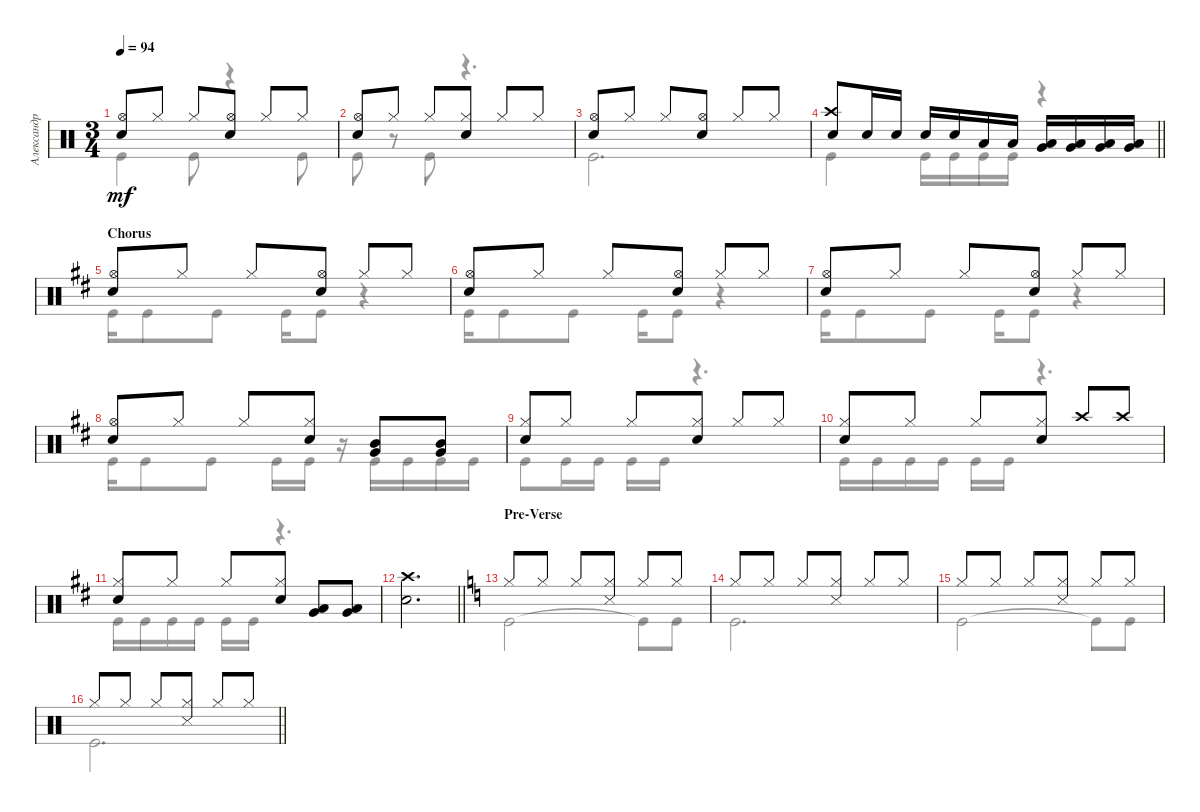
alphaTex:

\track ("Александр Манякин" "Александр ") {instrument percussion}
\staff {score}
\articulation defaults
\voice
\ts (3 4)
\tempo 94
\clef neutral
\ks c
("Snare (hit) 2" "Hi-Hat (open)").8{dy mf} "Hi-Hat (closed)".8 "Hi-Hat (closed)".8 ("Snare (hit) 2" "Hi-Hat (open)").8 "Hi-Hat (closed)".8 "Hi-Hat (closed)".8 |
("Hi-Hat (open)" "Snare (hit) 2").8 "Hi-Hat (closed)".8 "Hi-Hat (closed)".8 ("Hi-Hat (closed)" "Snare (hit) 2").8 "Hi-Hat (closed)".8 "Hi-Hat (closed)".8 |
("Snare (hit) 2" "Hi-Hat (open)").8 "Hi-Hat (closed)".8 "Hi-Hat (closed)".8 ("Snare (hit) 2" "Hi-Hat (open)").8 "Hi-Hat (closed)".8 "Hi-Hat (closed)".8 |
\barLineRight lightlight
("Snare (hit) 2" "Crash high (hit)").8 "Snare (hit) 2".16 "Snare (hit) 2".16 "Snare (hit) 2".16 "Snare (hit) 2".16 "Low Tom (hit)".16 "Low Tom (hit)".16 ("Low Tom (hit)" "Very Low Tom (hit)").16 ("Low Tom (hit)" "Very Low Tom (hit)").16 ("Low Tom (hit)" "Very Low Tom (hit)").16 ("Low Tom (hit)" "Very Low Tom (hit)").16 |
\section ("" "Chorus")
\ks d
("Snare (hit) 2" "Hi-Hat (open)").8 "Hi-Hat (closed)".8 "Hi-Hat (closed)".8 ("Snare (hit) 2" "Hi-Hat (open)").8 "Hi-Hat (closed)".8 "Hi-Hat (closed)".8 |
("Snare (hit) 2" "Hi-Hat (open)").8 "Hi-Hat (closed)".8 "Hi-Hat (closed)".8 ("Snare (hit) 2" "Hi-Hat (open)").8 "Hi-Hat (closed)".8 "Hi-Hat (closed)".8 |
("Snare (hit) 2" "Hi-Hat (open)").8 "Hi-Hat (closed)".8 "Hi-Hat (closed)".8 ("Snare (hit) 2" "Hi-Hat (open)").8 "Hi-Hat (closed)".8 "Hi-Hat (closed)".8 |
("Snare (hit) 2" "Hi-Hat (open)").8 "Hi-Hat (closed)".8 "Hi-Hat (closed)".8 ("Hi-Hat (closed)" "Snare (hit) 2").8 ("Mid Tom (hit)" "Very Low Tom (hit)").8 ("Mid Tom (hit)" "Very Low Tom (hit)").8 |
("Snare (hit) 2" "Hi-Hat (closed)").8 "Hi-Hat (closed)".8 "Hi-Hat (closed)".8 ("Snare (hit) 2" "Hi-Hat (closed)").8 "Hi-Hat (closed)".8 "Hi-Hat (closed)".8 |
("Snare (hit) 2" "Hi-Hat (closed)").8 "Hi-Hat (closed)".8 "Hi-Hat (closed)".8 ("Snare (hit) 2" "Hi-Hat (closed)").8 "Crash high (hit)".8 "Crash high (hit)".8 |
("Snare (hit) 2" "Hi-Hat (closed)").8 "Hi-Hat (closed)".8 "Hi-Hat (closed)".8 ("Snare (hit) 2" "Hi-Hat (closed)").8 ("Low Tom (hit)" "Very Low Tom (hit)").8 ("Low Tom (hit)" "Very Low Tom (hit)").8 |
\barLineRight lightlight
("Snare (hit) 2" "Crash high (hit)").2{d} |
\section ("" "Pre-Verse")
\ks c "Hi-Hat (closed)".8 "Hi-Hat (closed)".8 "Hi-Hat (closed)".8
("Hi-Hat (closed)" "Snare (side stick) 3").8 "Hi-Hat (closed)".8 "Hi-Hat (closed)".8 |
"Hi-Hat (closed)".8 "Hi-Hat (closed)".8 "Hi-Hat (closed)".8 ("Hi-Hat (closed)" "Snare (side stick) 3").8 "Hi-Hat (closed)".8 "Hi-Hat (closed)".8 |
"Hi-Hat (closed)".8 "Hi-Hat (closed)".8 "Hi-Hat (closed)".8 ("Hi-Hat (closed)" "Snare (side stick) 3").8 "Hi-Hat (closed)".8 "Hi-Hat (closed)".8 |
\barLineRight lightlight "Hi-Hat (closed)".8 "Hi-Hat (closed)".8 "Hi-Hat (closed)".8
("Hi-Hat (closed)" "Snare (side stick) 3").8 "Hi-Hat (closed)".8 "Hi-Hat (closed)".8
\voice
\clef neutral
\ottava regular
\simile none
\ks c "Kick (hit)".4{dy mf} "Kick (hit)".8
r.4 "Kick (hit)".8 |
"Kick (hit)".8 r.8 "Kick (hit)".8 r.4{d} |
"Kick (hit)".2{d} |
\barLineRight lightlight "Kick (hit)".4 "Kick (hit)".16 "Kick (hit)".16 "Kick (hit)".16 "Kick (hit)".16
r.4 |
\ks d "Kick (hit)".16 "Kick (hit)".8 "Kick (hit)".8 "Kick (hit)".16 "Kick (hit)".8
r.4 |
"Kick (hit)".16 "Kick (hit)".8 "Kick (hit)".8 "Kick (hit)".16 "Kick (hit)".8 r.4 |
"Kick (hit)".16 "Kick (hit)".8 "Kick (hit)".8 "Kick (hit)".16 "Kick (hit)".8 r.4 |
"Kick (hit)".16 "Kick (hit)".8 "Kick (hit)".8 "Kick (hit)".16 "Kick (hit)".16 r.16 "Kick (hit)".16 "Kick (hit)".16 "Kick (hit)".16 "Kick (hit)".16 |
"Kick (hit)".8 "Kick (hit)".16 "Kick (hit)".16 "Kick (hit)".16 "Kick (hit)".16 r.4{d} |
"Kick (hit)".16 "Kick (hit)".16 "Kick (hit)".16 "Kick (hit)".16 "Kick (hit)".16 "Kick (hit)".16 r.4{d} |
"Kick (hit)".16 "Kick (hit)".16 "Kick (hit)".16 "Kick (hit)".16 "Kick (hit)".16 "Kick (hit)".16 r.4{d} |
\barLineRight lightlight
|
\ks c "Kick (hit)".2 "Kick (hit)"{t}.8 "Kick (hit)".8
|
"Kick (hit)".2{d} |
"Kick (hit)".2 "Kick (hit)"{t}.8 "Kick (hit)".8 |
\barLineRight lightlight "Kick (hit)".2{d}
